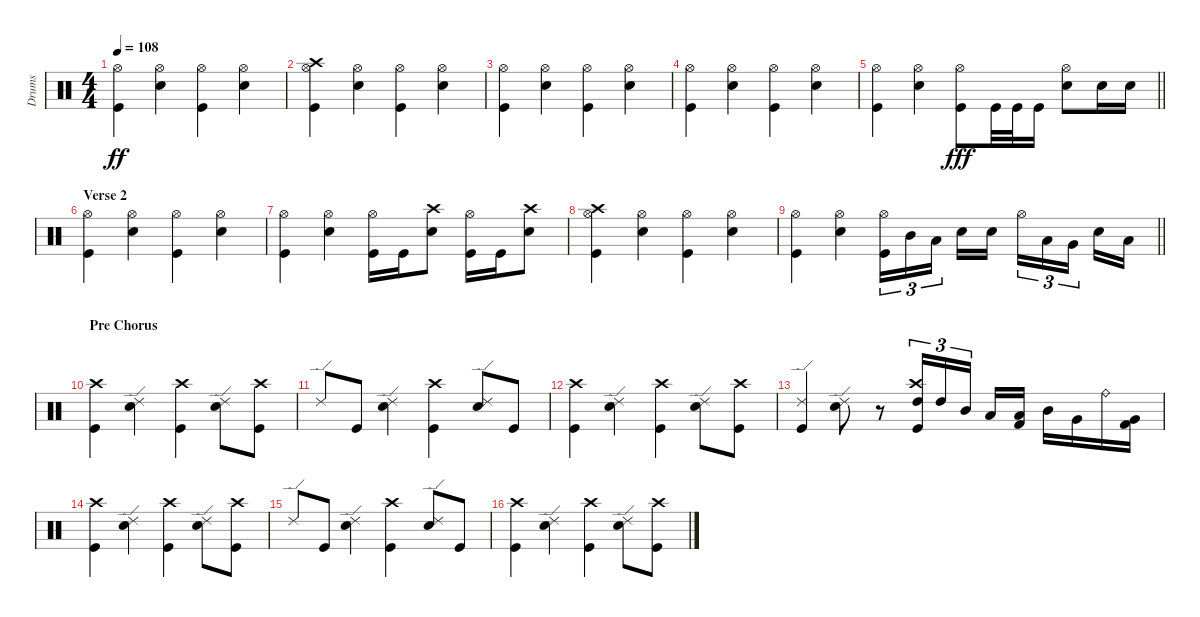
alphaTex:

\track ("Drums" "Drums") {instrument percussion}
\staff {score}
\articulation defaults
\ts (4 4)
\tempo 108
\clef neutral
\ks c
("Hi-Hat (open)" "Kick (hit)").4{dy ff} ("Hi-Hat (open)" "Snare (hit) 2").4 ("Hi-Hat (open)" "Kick (hit)").4 ("Hi-Hat (open)" "Snare (hit) 2").4 |
("Crash high (hit)" "Hi-Hat (open)" "Kick (hit)").4 ("Hi-Hat (open)" "Snare (hit) 2").4 ("Hi-Hat (open)" "Kick (hit)").4 ("Hi-Hat (open)" "Snare (hit) 2").4 |
("Hi-Hat (open)" "Kick (hit)").4 ("Hi-Hat (open)" "Snare (hit) 2").4 ("Hi-Hat (open)" "Kick (hit)").4 ("Hi-Hat (open)" "Snare (hit) 2").4 |
("Hi-Hat (open)" "Kick (hit)").4 ("Hi-Hat (open)" "Snare (hit) 2").4 ("Hi-Hat (open)" "Kick (hit)").4 ("Hi-Hat (open)" "Snare (hit) 2").4 |
\barLineRight lightlight
("Hi-Hat (open)" "Kick (hit)").4 ("Hi-Hat (open)" "Snare (hit) 2").4 ("Hi-Hat (open)" "Kick (hit)").8{dy fff} "Kick (hit)".32 "Kick (hit)".32 "Kick (hit)".16 ("Hi-Hat (open)" "Snare (hit) 2").8 "Snare (hit) 2".16 "Snare (hit) 2".16 |
\section ("" "Verse 2")
("Hi-Hat (open)" "Kick (hit)").4 ("Hi-Hat (open)" "Snare (hit) 2").4 ("Hi-Hat (open)" "Kick (hit)").4 ("Hi-Hat (open)" "Snare (hit) 2").4 |
("Hi-Hat (open)" "Kick (hit)").4 ("Hi-Hat (open)" "Snare (hit) 2").4 ("Hi-Hat (open)" "Kick (hit)").16 "Kick (hit)".16 ("Crash high (hit)" "Snare (hit) 2").8 ("Hi-Hat (open)" "Kick (hit)").16 "Kick (hit)".16 ("Crash high (hit)" "Snare (hit) 2").8 |
("Crash high (hit)" "Hi-Hat (open)" "Kick (hit)").4 ("Hi-Hat (open)" "Snare (hit) 2").4 ("Hi-Hat (open)" "Kick (hit)").4 ("Hi-Hat (open)" "Snare (hit) 2").4 |
\barLineRight lightlight
("Hi-Hat (open)" "Kick (hit)").4 ("Hi-Hat (open)" "Snare (hit) 2").4 ("Hi-Hat (open)" "Kick (hit)").16{tu (3 2)} "Mid Tom (hit)".16{tu (3 2)} "Low Tom (hit)".16{tu (3 2) beam splitsecondary} "Snare (hit) 2".16 "Snare (hit) 2".16 "Hi-Hat (open)".16{tu (3 2)} "Low Tom (hit)".16{tu (3 2)} "Very Low Tom (hit)".16{tu (3 2) beam splitsecondary} "Snare (hit) 2".16 "Low Floor Tom (hit)".16 |
\section ("" "Pre Chorus")
("Crash high (hit)" "Kick (hit)").4 ("Ride (edge) 2" "Snare (hit) 2").4 ("Crash high (hit)" "Kick (hit)").4 ("Ride (edge) 2" "Snare (hit) 2").8 ("Crash high (hit)" "Kick (hit)").8 |
"Ride (edge) 2".8 "Kick (hit)".8 ("Ride (edge) 2" "Snare (hit) 2").4 ("Crash high (hit)" "Kick (hit)").4 ("Ride (edge) 2" "Snare (hit) 2").8 "Kick (hit)".8 |
("Crash high (hit)" "Kick (hit)").4 ("Ride (edge) 2" "Snare (hit) 2").4 ("Crash high (hit)" "Kick (hit)").4 ("Ride (edge) 2" "Snare (hit) 2").8 ("Crash high (hit)" "Kick (hit)").8 |
("Ride (edge) 2" "Kick (hit)").4 ("Ride (edge) 2" "Snare (hit) 2").8 r.8 ("Crash high (hit)" "High Tom (hit)" "Kick (hit)").16{tu (3 2)} "High Tom (hit)".16{tu (3 2)} "Mid Tom (hit)".16{tu (3 2) beam splitsecondary} "Low Tom (hit)".16 ("Low Tom (hit)" "Kick (hit) 2").16 "Mid Tom (hit)".16 "Very Low Tom (hit)".16 "Ride (bell)".16 ("Very Low Tom (hit)" "Kick (hit) 2").16 |
("Crash high (hit)" "Kick (hit)").4 ("Ride (edge) 2" "Snare (hit) 2").4 ("Crash high (hit)" "Kick (hit)").4 ("Ride (edge) 2" "Snare (hit) 2").8 ("Crash high (hit)" "Kick (hit)").8 |
"Ride (edge) 2".8 "Kick (hit)".8 ("Ride (edge) 2" "Snare (hit) 2").4 ("Crash high (hit)" "Kick (hit)").4 ("Ride (edge) 2" "Snare (hit) 2").8 "Kick (hit)".8 |
("Crash high (hit)" "Kick (hit)").4 ("Ride (edge) 2" "Snare (hit) 2").4 ("Crash high (hit)" "Kick (hit)").4 ("Ride (edge) 2" "Snare (hit) 2").8 ("Crash high (hit)" "Kick (hit)").8
